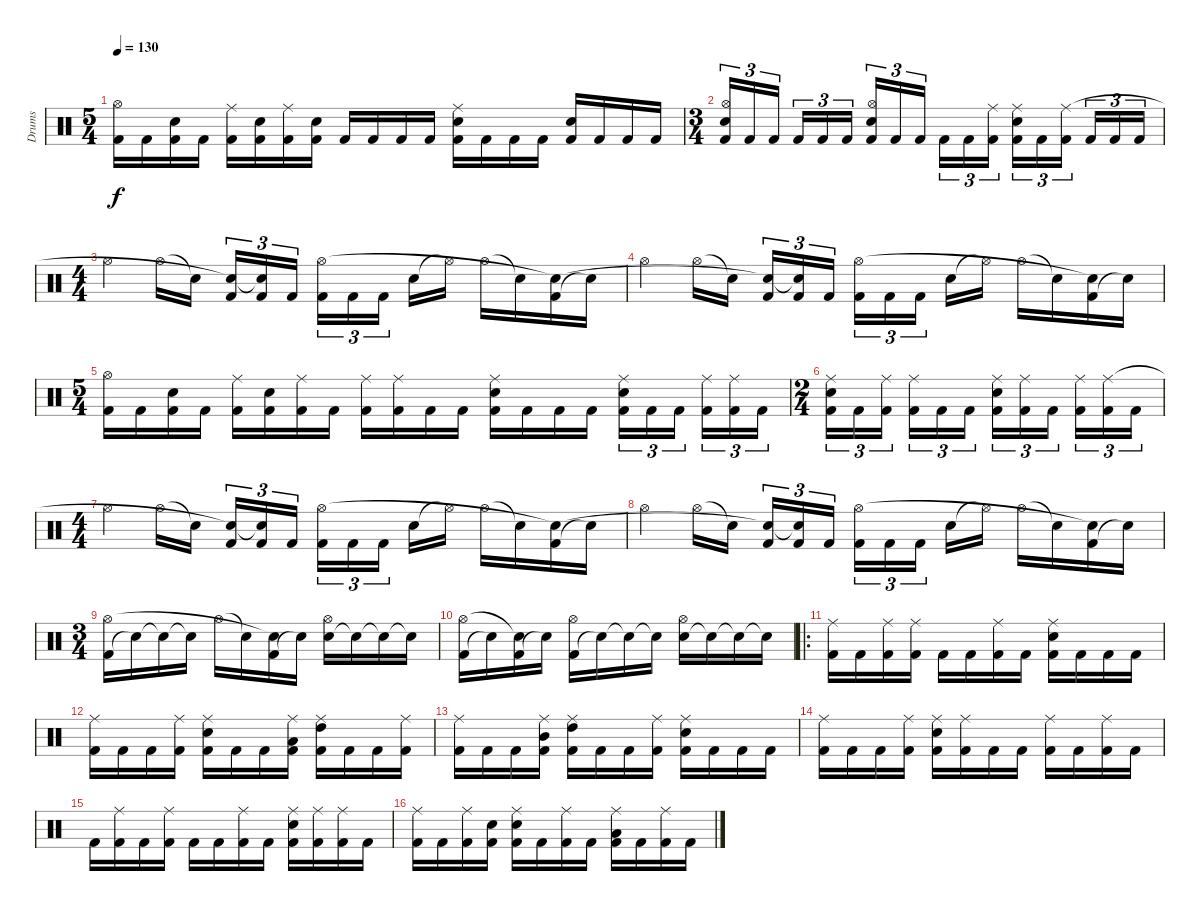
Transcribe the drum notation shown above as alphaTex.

\track ("Drums" "Drums") {instrument percussion}
\staff {score}
\articulation defaults
\ts (5 4)
\tempo 130
\clef neutral
\ks c
("Kick (hit) 2" "Hi-Hat (open)").16{dy f} "Kick (hit) 2".16 ("Kick (hit) 2" "Snare (hit) 2").16 "Kick (hit) 2".16 ("Kick (hit) 2" "Ride (middle)").16 ("Kick (hit) 2" "Snare (hit) 2").16 ("Kick (hit) 2" "Ride (middle)").16 ("Kick (hit) 2" "Snare (hit) 2").16 "Kick (hit) 2".16 "Kick (hit) 2".16 "Kick (hit) 2".16 "Kick (hit) 2".16 ("Kick (hit) 2" "Snare (hit) 2" "Ride (middle)").16 "Kick (hit) 2".16 "Kick (hit) 2".16 "Kick (hit) 2".16 ("Kick (hit) 2" "Snare (hit) 2").16 "Kick (hit) 2".16 "Kick (hit) 2".16 "Kick (hit) 2".16 |
\ts (3 4)
("Kick (hit) 2" "Snare (hit) 2" "Hi-Hat (open)").16{tu (3 2)} "Kick (hit) 2".16{tu (3 2)} "Kick (hit) 2".16{tu (3 2)} "Kick (hit) 2".16{tu (3 2)} "Kick (hit) 2".16{tu (3 2)} "Kick (hit) 2".16{tu (3 2)} ("Kick (hit) 2" "Snare (hit) 2" "Hi-Hat (open)").16{tu (3 2)} "Kick (hit) 2".16{tu (3 2)} "Kick (hit) 2".16{tu (3 2)} "Kick (hit) 2".16{tu (3 2)} "Kick (hit) 2".16{tu (3 2)} ("Kick (hit) 2" "Ride (middle)").16{tu (3 2)} ("Kick (hit) 2" "Snare (hit) 2" "Ride (middle)").16{tu (3 2)} "Kick (hit) 2".16{tu (3 2)} ("Kick (hit) 2" "Ride (middle)").16{tu (3 2)} "Kick (hit) 2".16{tu (3 2)} "Kick (hit) 2".16{tu (3 2)} "Kick (hit) 2".16{tu (3 2)} |
\ts (4 4)
"Hi-Hat (open)".4 "Hi-Hat (open)".16 "Snare (hit)"{t}.16 ("Kick (hit) 2" "Snare (hit)"{t}).16{tu (3 2)} ("Kick (hit) 2" "Snare (hit)"{t}).16{tu (3 2)} "Kick (hit) 2".16{tu (3 2)} ("Kick (hit) 2" "Hi-Hat (open)").16{tu (3 2)} "Kick (hit) 2".16{tu (3 2)} "Kick (hit) 2".16{tu (3 2)} "Snare (hit) 2".16 "Hi-Hat (open)"{t}.16 "Hi-Hat (open)".16 "Snare (hit)"{t}.16 ("Kick (hit) 2" "Snare (hit)"{t}).16 "Snare (hit)"{t}.16 |
"Hi-Hat (open)".4 "Hi-Hat (open)".16 "Snare (hit)"{t}.16 ("Kick (hit) 2" "Snare (hit)"{t}).16{tu (3 2)} ("Kick (hit) 2" "Snare (hit)"{t}).16{tu (3 2)} "Kick (hit) 2".16{tu (3 2)} ("Kick (hit) 2" "Hi-Hat (open)").16{tu (3 2)} "Kick (hit) 2".16{tu (3 2)} "Kick (hit) 2".16{tu (3 2)} "Snare (hit) 2".16 "Hi-Hat (open)"{t}.16 "Hi-Hat (open)".16 "Snare (hit)"{t}.16 ("Kick (hit) 2" "Snare (hit)"{t}).16 "Snare (hit)"{t}.16 |
\ts (5 4)
("Kick (hit) 2" "Hi-Hat (open)").16 "Kick (hit) 2".16 ("Kick (hit) 2" "Snare (hit) 2").16 "Kick (hit) 2".16 ("Kick (hit) 2" "Ride (middle)").16 ("Kick (hit) 2" "Snare (hit) 2").16 ("Kick (hit) 2" "Ride (middle)").16 "Kick (hit) 2".16 ("Kick (hit) 2" "Ride (middle)").16 ("Kick (hit) 2" "Ride (middle)").16 "Kick (hit) 2".16 "Kick (hit) 2".16 ("Kick (hit) 2" "Snare (hit) 2" "Ride (middle)").16 "Kick (hit) 2".16 "Kick (hit) 2".16 "Kick (hit) 2".16 ("Kick (hit) 2" "Snare (hit) 2" "Ride (middle)").16{tu (3 2)} "Kick (hit) 2".16{tu (3 2)} "Kick (hit) 2".16{tu (3 2)} ("Kick (hit) 2" "Ride (middle)").16{tu (3 2)} ("Kick (hit) 2" "Ride (middle)").16{tu (3 2)} "Kick (hit) 2".16{tu (3 2)} |
\ts (2 4)
("Kick (hit) 2" "Snare (hit) 2" "Ride (middle)").16{tu (3 2)} "Kick (hit) 2".16{tu (3 2)} ("Kick (hit) 2" "Ride (middle)").16{tu (3 2)} ("Kick (hit) 2" "Ride (middle)").16{tu (3 2)} "Kick (hit) 2".16{tu (3 2)} "Kick (hit) 2".16{tu (3 2)} ("Kick (hit) 2" "Snare (hit) 2" "Ride (middle)").16{tu (3 2)} ("Kick (hit) 2" "Ride (middle)").16{tu (3 2)} "Kick (hit) 2".16{tu (3 2)} ("Kick (hit) 2" "Ride (middle)").16{tu (3 2)} ("Kick (hit) 2" "Ride (middle)").16{tu (3 2)} "Kick (hit) 2".16{tu (3 2)} |
\ts (4 4)
"Hi-Hat (open)".4 "Hi-Hat (open)".16 "Snare (hit)"{t}.16 ("Kick (hit) 2" "Snare (hit)"{t}).16{tu (3 2)} ("Kick (hit) 2" "Snare (hit)"{t}).16{tu (3 2)} "Kick (hit) 2".16{tu (3 2)} ("Kick (hit) 2" "Hi-Hat (open)").16{tu (3 2)} "Kick (hit) 2".16{tu (3 2)} "Kick (hit) 2".16{tu (3 2)} "Snare (hit) 2".16 "Hi-Hat (open)"{t}.16 "Hi-Hat (open)".16 "Snare (hit)"{t}.16 ("Kick (hit) 2" "Snare (hit)"{t}).16 "Snare (hit)"{t}.16 |
"Hi-Hat (open)".4 "Hi-Hat (open)".16 "Snare (hit)"{t}.16 ("Kick (hit) 2" "Snare (hit)"{t}).16{tu (3 2)} ("Kick (hit) 2" "Snare (hit)"{t}).16{tu (3 2)} "Kick (hit) 2".16{tu (3 2)} ("Kick (hit) 2" "Hi-Hat (open)").16{tu (3 2)} "Kick (hit) 2".16{tu (3 2)} "Kick (hit) 2".16{tu (3 2)} "Snare (hit) 2".16 "Hi-Hat (open)"{t}.16 "Hi-Hat (open)".16 "Snare (hit)"{t}.16 ("Kick (hit) 2" "Snare (hit)"{t}).16 "Snare (hit)"{t}.16 |
\ts (3 4)
("Kick (hit) 2" "Hi-Hat (open)").16 "Snare (hit)"{t}.16 "Snare (hit)"{t}.16 "Snare (hit)"{t}.16 "Hi-Hat (open)".16 "Snare (hit)"{t}.16 ("Kick (hit) 2" "Snare (hit)"{t}).16 "Snare (hit)"{t}.16 ("Snare (hit) 2" "Hi-Hat (open)").16 "Snare (hit)"{t}.16 "Snare (hit)"{t}.16 "Snare (hit)"{t}.16 |
("Kick (hit) 2" "Hi-Hat (open)").16 "Snare (hit)"{t}.16 ("Kick (hit) 2" "Snare (hit)"{t}).16 "Snare (hit)"{t}.16 ("Kick (hit) 2" "Hi-Hat (open)").16 "Snare (hit)"{t}.16 "Snare (hit)"{t}.16 "Snare (hit)"{t}.16 ("Snare (hit) 2" "Hi-Hat (open)").16 "Snare (hit)"{t}.16 "Snare (hit)"{t}.16 "Snare (hit)"{t}.16 |
\ro
("Kick (hit) 2" "Ride (middle)").16 "Kick (hit) 2".16 ("Kick (hit) 2" "Ride (middle)").16 ("Kick (hit) 2" "Ride (middle)").16 "Kick (hit) 2".16 "Kick (hit) 2".16 ("Kick (hit) 2" "Ride (middle)").16 "Kick (hit) 2".16 ("Kick (hit) 2" "Snare (hit) 2" "Ride (middle)").16 "Kick (hit) 2".16 "Kick (hit) 2".16 "Kick (hit) 2".16 |
("Kick (hit) 2" "Ride (middle)").16 "Kick (hit) 2".16 "Kick (hit) 2".16 ("Kick (hit) 2" "Ride (middle)").16 ("Kick (hit) 2" "Snare (hit) 2" "Ride (middle)").16 "Kick (hit) 2".16 "Kick (hit) 2".16 ("Kick (hit) 2" "Low Tom (hit)" "Ride (middle)").16 ("Kick (hit) 2" "High Tom (hit)" "Ride (middle)").16 "Kick (hit) 2".16 "Kick (hit) 2".16 ("Kick (hit) 2" "Ride (middle)").16 |
("Kick (hit) 2" "Ride (middle)").16 "Kick (hit) 2".16 "Kick (hit) 2".16 ("Kick (hit) 2" "Mid Tom (hit)" "Ride (middle)").16 ("Kick (hit) 2" "High Tom (hit)" "Ride (middle)").16 "Kick (hit) 2".16 "Kick (hit) 2".16 ("Kick (hit) 2" "Ride (middle)").16 ("Kick (hit) 2" "Snare (hit) 2" "Ride (middle)").16 "Kick (hit) 2".16 "Kick (hit) 2".16 "Kick (hit) 2".16 |
("Kick (hit) 2" "Ride (middle)").16 "Kick (hit) 2".16 "Kick (hit) 2".16 ("Kick (hit) 2" "Ride (middle)").16 ("Kick (hit) 2" "Snare (hit) 2" "Ride (middle)").16 ("Kick (hit) 2" "Ride (middle)").16 "Kick (hit) 2".16 "Kick (hit) 2".16 ("Kick (hit) 2" "Ride (middle)").16 "Kick (hit) 2".16 ("Kick (hit) 2" "Ride (middle)").16 "Kick (hit) 2".16 |
"Kick (hit) 2".16 ("Kick (hit) 2" "Ride (middle)").16 "Kick (hit) 2".16 ("Kick (hit) 2" "Ride (middle)").16 "Kick (hit) 2".16 "Kick (hit) 2".16 ("Kick (hit) 2" "Ride (middle)").16 "Kick (hit) 2".16 ("Kick (hit) 2" "Snare (hit) 2" "Ride (middle)").16 ("Kick (hit) 2" "Ride (middle)").16 ("Kick (hit) 2" "Ride (middle)").16 "Kick (hit) 2".16 |
("Kick (hit) 2" "Ride (middle)").16 "Kick (hit) 2".16 ("Kick (hit) 2" "Ride (middle)").16 ("Kick (hit) 2" "Snare (hit) 2").16 ("Kick (hit) 2" "Snare (hit) 2" "Ride (middle)").16 "Kick (hit) 2".16 ("Kick (hit) 2" "Ride (middle)").16 "Kick (hit) 2".16 ("Kick (hit) 2" "Low Tom (hit)" "Ride (middle)").16 "Kick (hit) 2".16 ("Kick (hit) 2" "Ride (middle)").16 "Kick (hit) 2".16
